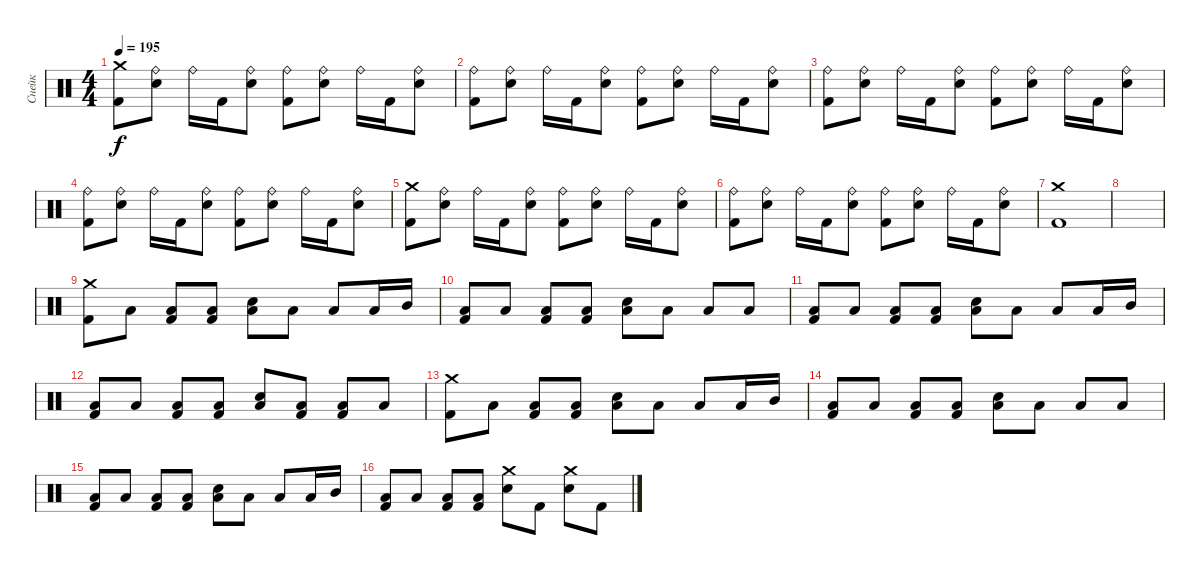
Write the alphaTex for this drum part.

\track ("Снейк" "Снейк") {instrument percussion}
\staff {score}
\articulation defaults
\ts (4 4)
\tempo 195
\clef neutral
\ks c
("Kick (hit) 2" "Crash medium (hit)").8{dy f} ("Electric Snare (hit)" "Ride (bell)").8 "Ride (bell)".16 "Kick (hit) 2".16 ("Electric Snare (hit)" "Ride (bell)").8 ("Kick (hit) 2" "Ride (bell)").8 ("Electric Snare (hit)" "Ride (bell)").8 "Ride (bell)".16 "Kick (hit) 2".16 ("Electric Snare (hit)" "Ride (bell)").8 |
("Kick (hit) 2" "Ride (bell)").8 ("Electric Snare (hit)" "Ride (bell)").8 "Ride (bell)".16 "Kick (hit) 2".16 ("Electric Snare (hit)" "Ride (bell)").8 ("Kick (hit) 2" "Ride (bell)").8 ("Electric Snare (hit)" "Ride (bell)").8 "Ride (bell)".16 "Kick (hit) 2".16 ("Electric Snare (hit)" "Ride (bell)").8 |
("Kick (hit) 2" "Ride (bell)").8 ("Electric Snare (hit)" "Ride (bell)").8 "Ride (bell)".16 "Kick (hit) 2".16 ("Electric Snare (hit)" "Ride (bell)").8 ("Kick (hit) 2" "Ride (bell)").8 ("Electric Snare (hit)" "Ride (bell)").8 "Ride (bell)".16 "Kick (hit) 2".16 ("Electric Snare (hit)" "Ride (bell)").8 |
("Kick (hit) 2" "Ride (bell)").8 ("Electric Snare (hit)" "Ride (bell)").8 "Ride (bell)".16 "Kick (hit) 2".16 ("Electric Snare (hit)" "Ride (bell)").8 ("Kick (hit) 2" "Ride (bell)").8 ("Electric Snare (hit)" "Ride (bell)").8 "Ride (bell)".16 "Kick (hit) 2".16 ("Electric Snare (hit)" "Ride (bell)").8 |
("Kick (hit) 2" "Crash medium (hit)").8 ("Electric Snare (hit)" "Ride (bell)").8 "Ride (bell)".16 "Kick (hit) 2".16 ("Electric Snare (hit)" "Ride (bell)").8 ("Kick (hit) 2" "Ride (bell)").8 ("Electric Snare (hit)" "Ride (bell)").8 "Ride (bell)".16 "Kick (hit) 2".16 ("Electric Snare (hit)" "Ride (bell)").8 |
("Kick (hit) 2" "Ride (bell)").8 ("Electric Snare (hit)" "Ride (bell)").8 "Ride (bell)".16 "Kick (hit) 2".16 ("Electric Snare (hit)" "Ride (bell)").8 ("Kick (hit) 2" "Ride (bell)").8 ("Electric Snare (hit)" "Ride (bell)").8 "Ride (bell)".16 "Kick (hit) 2".16 ("Electric Snare (hit)" "Ride (bell)").8 |
("Kick (hit) 2" "Crash medium (hit)").1 |
|
("Kick (hit) 2" "Crash medium (hit)").8 "Low Floor Tom (hit)".8 ("Kick (hit) 2" "Low Floor Tom (hit)").8 ("Kick (hit) 2" "Low Floor Tom (hit)").8 ("Electric Snare (hit)" "Low Floor Tom (hit)").8 "Low Floor Tom (hit)".8 "Low Floor Tom (hit)".8 "Low Floor Tom (hit)".16 "Mid Tom (hit)".16 |
("Kick (hit) 2" "Low Floor Tom (hit)").8 "Low Floor Tom (hit)".8 ("Kick (hit) 2" "Low Floor Tom (hit)").8 ("Kick (hit) 2" "Low Floor Tom (hit)").8 ("Electric Snare (hit)" "Low Floor Tom (hit)").8 "Low Floor Tom (hit)".8 "Low Floor Tom (hit)".8 "Low Floor Tom (hit)".8 |
("Kick (hit) 2" "Low Floor Tom (hit)").8 "Low Floor Tom (hit)".8 ("Kick (hit) 2" "Low Floor Tom (hit)").8 ("Kick (hit) 2" "Low Floor Tom (hit)").8 ("Electric Snare (hit)" "Low Floor Tom (hit)").8 "Low Floor Tom (hit)".8 "Low Floor Tom (hit)".8 "Low Floor Tom (hit)".16 "Mid Tom (hit)".16 |
("Kick (hit) 2" "Low Floor Tom (hit)").8 "Low Floor Tom (hit)".8 ("Kick (hit) 2" "Low Floor Tom (hit)").8 ("Kick (hit) 2" "Low Floor Tom (hit)").8 ("Electric Snare (hit)" "Low Floor Tom (hit)").8 ("Kick (hit) 2" "Low Floor Tom (hit)").8 ("Kick (hit) 2" "Low Floor Tom (hit)").8 "Low Floor Tom (hit)".8 |
("Kick (hit) 2" "Crash medium (hit)").8 "Low Floor Tom (hit)".8 ("Kick (hit) 2" "Low Floor Tom (hit)").8 ("Kick (hit) 2" "Low Floor Tom (hit)").8 ("Electric Snare (hit)" "Low Floor Tom (hit)").8 "Low Floor Tom (hit)".8 "Low Floor Tom (hit)".8 "Low Floor Tom (hit)".16 "Mid Tom (hit)".16 |
("Kick (hit) 2" "Low Floor Tom (hit)").8 "Low Floor Tom (hit)".8 ("Kick (hit) 2" "Low Floor Tom (hit)").8 ("Kick (hit) 2" "Low Floor Tom (hit)").8 ("Electric Snare (hit)" "Low Floor Tom (hit)").8 "Low Floor Tom (hit)".8 "Low Floor Tom (hit)".8 "Low Floor Tom (hit)".8 |
("Kick (hit) 2" "Low Floor Tom (hit)").8 "Low Floor Tom (hit)".8 ("Kick (hit) 2" "Low Floor Tom (hit)").8 ("Kick (hit) 2" "Low Floor Tom (hit)").8 ("Electric Snare (hit)" "Low Floor Tom (hit)").8 "Low Floor Tom (hit)".8 "Low Floor Tom (hit)".8 "Low Floor Tom (hit)".16 "Mid Tom (hit)".16 |
("Kick (hit) 2" "Low Floor Tom (hit)").8 "Low Floor Tom (hit)".8 ("Kick (hit) 2" "Low Floor Tom (hit)").8 ("Kick (hit) 2" "Low Floor Tom (hit)").8 ("Electric Snare (hit)" "Crash medium (hit)").8 "Kick (hit) 2".8 ("Electric Snare (hit)" "Crash medium (hit)").8 "Kick (hit) 2".8
